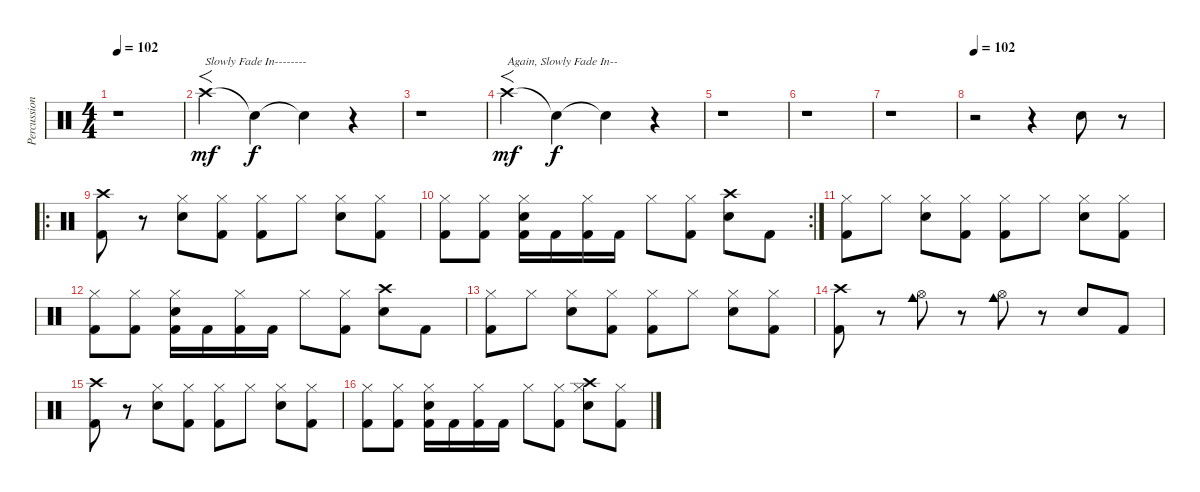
\track ("Percussion" "Percussion") {instrument percussion}
\staff {score}
\articulation defaults
\ts (4 4)
\tempo 102
\tempo 72
\tempo 102
\clef neutral
\ks c
r.1{dy mf} |
"Crash high (hit)".4{f txt "Slowly Fade In--------"} "Snare (hit)"{t}.4{dy f} "Snare (hit)"{t}.4 r.4 |
r.1 |
"Crash high (hit)".4{f txt "Again, Slowly Fade In--" dy mf} "Snare (hit)"{t}.4{dy f} "Snare (hit)"{t}.4 r.4 |
r.1 |
r.1 |
r.1 |
\tempo 102
r.2{volume 10} r.4 "Snare (hit) 2".8 r.8 |
\ro
("Kick (hit) 2" "Crash high (hit)").8 r.8 ("Hi-Hat (closed)" "Snare (hit) 2").8 ("Hi-Hat (closed)" "Kick (hit) 2").8 ("Hi-Hat (closed)" "Kick (hit) 2").8 "Hi-Hat (closed)".8 ("Hi-Hat (closed)" "Snare (hit) 2").8 ("Hi-Hat (closed)" "Kick (hit) 2").8 |
\rc 2
("Hi-Hat (closed)" "Kick (hit) 2").8 ("Hi-Hat (closed)" "Kick (hit) 2").8 ("Hi-Hat (closed)" "Snare (hit) 2" "Kick (hit) 2").16 "Kick (hit) 2".16 ("Hi-Hat (closed)" "Kick (hit) 2").16 "Kick (hit) 2".16 "Hi-Hat (closed)".8 ("Hi-Hat (closed)" "Kick (hit) 2").8 ("Snare (hit) 2" "Crash high (hit)").8 "Kick (hit) 2".8 |
("Hi-Hat (closed)" "Kick (hit) 2").8 "Hi-Hat (closed)".8 ("Hi-Hat (closed)" "Snare (hit) 2").8 ("Hi-Hat (closed)" "Kick (hit) 2").8 ("Hi-Hat (closed)" "Kick (hit) 2").8 "Hi-Hat (closed)".8 ("Hi-Hat (closed)" "Snare (hit) 2").8 ("Hi-Hat (closed)" "Kick (hit) 2").8 |
("Hi-Hat (closed)" "Kick (hit) 2").8 ("Hi-Hat (closed)" "Kick (hit) 2").8 ("Hi-Hat (closed)" "Snare (hit) 2" "Kick (hit) 2").16 "Kick (hit) 2".16 ("Hi-Hat (closed)" "Kick (hit) 2").16 "Kick (hit) 2".16 "Hi-Hat (closed)".8 ("Hi-Hat (closed)" "Kick (hit) 2").8 ("Snare (hit) 2" "Crash high (hit)").8 "Kick (hit) 2".8 |
("Hi-Hat (closed)" "Kick (hit) 2").8 "Hi-Hat (closed)".8 ("Hi-Hat (closed)" "Snare (hit) 2").8 ("Hi-Hat (closed)" "Kick (hit) 2").8 ("Hi-Hat (closed)" "Kick (hit) 2").8 "Hi-Hat (closed)".8 ("Hi-Hat (closed)" "Snare (hit) 2").8 ("Hi-Hat (closed)" "Kick (hit) 2").8 |
("Kick (hit) 2" "Crash high (hit)").8 r.8 ("Hi-Hat (open)" "Cowbell medium (hit)").8 r.8 ("Hi-Hat (open)" "Cowbell medium (hit)").8 r.8 "Electric Snare (hit)".8 "Kick (hit) 2".8 |
("Kick (hit) 2" "Crash high (hit)").8 r.8 ("Hi-Hat (closed)" "Snare (hit) 2").8 ("Hi-Hat (closed)" "Kick (hit) 2").8 ("Hi-Hat (closed)" "Kick (hit) 2").8 "Hi-Hat (closed)".8 ("Hi-Hat (closed)" "Snare (hit) 2").8 ("Hi-Hat (closed)" "Kick (hit) 2").8 |
("Hi-Hat (closed)" "Kick (hit) 2").8 ("Hi-Hat (closed)" "Kick (hit) 2").8 ("Hi-Hat (closed)" "Snare (hit) 2" "Kick (hit) 2").16 "Kick (hit) 2".16 ("Hi-Hat (closed)" "Kick (hit) 2").16 "Kick (hit) 2".16 "Hi-Hat (closed)".8 ("Hi-Hat (closed)" "Kick (hit) 2").8 ("Hi-Hat (closed)" "Snare (hit) 2" "Crash high (hit)").8 ("Hi-Hat (closed)" "Kick (hit) 2").8
